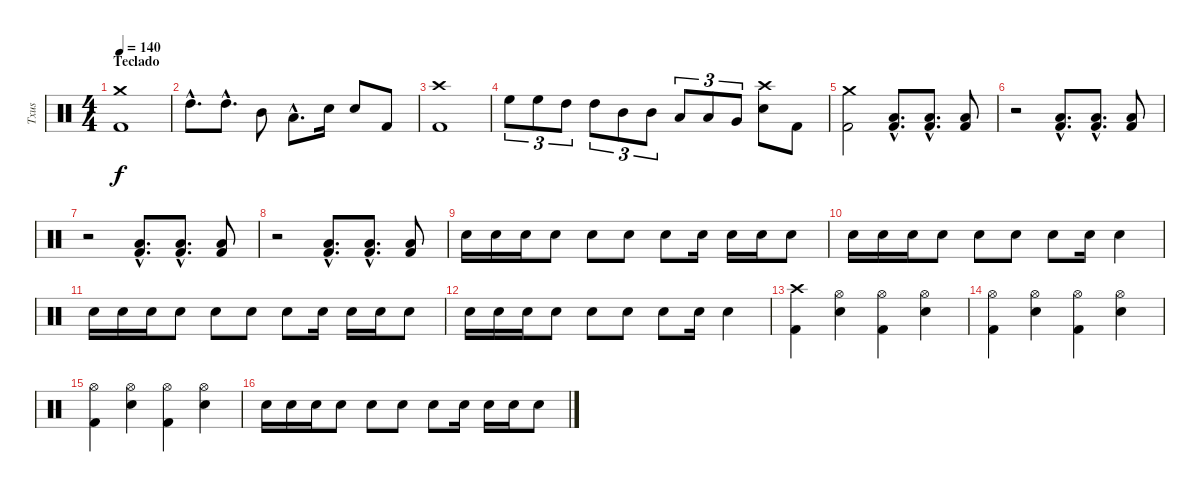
\track ("Txus" "Txus") {instrument percussion}
\staff {score}
\articulation defaults
\ts (4 4)
\section ("" "Teclado")
\tempo 140
\clef neutral
\ks c
("Kick (hit) 2" "Crash medium (hit)").1{dy f} |
"High Tom (hit)"{hac}.8{d} "High Tom (hit)"{hac}.8{d} "Mid Tom (hit)".8 "Low Tom (hit)"{hac}.8{d} "Electric Snare (hit)".16 "Electric Snare (hit)".8 "Kick (hit) 2".8 |
("Kick (hit) 2" "Crash high (hit)").1 |
"High Floor Tom (hit)".8{tu (3 2)} "High Floor Tom (hit)".8{tu (3 2)} "High Tom (hit)".8{tu (3 2)} "High Tom (hit)".8{tu (3 2)} "Mid Tom (hit)".8{tu (3 2)} "Mid Tom (hit)".8{tu (3 2)} "Low Tom (hit)".8{tu (3 2)} "Low Tom (hit)".8{tu (3 2)} "Very Low Tom (hit)".8{tu (3 2)} ("Electric Snare (hit)" "Crash high (hit)").8 "Kick (hit) 2".8 |
("Kick (hit) 2" "Crash medium (hit)").2 ("Kick (hit) 2"{hac} "Low Tom (hit)"{hac}).8{d} ("Kick (hit) 2"{hac} "Low Tom (hit)"{hac}).8{d} ("Kick (hit) 2" "Low Tom (hit)").8 |
r.2 ("Kick (hit) 2"{hac} "Low Tom (hit)"{hac}).8{d} ("Kick (hit) 2"{hac} "Low Tom (hit)"{hac}).8{d} ("Kick (hit) 2" "Low Tom (hit)").8 |
r.2 ("Kick (hit) 2"{hac} "Low Tom (hit)"{hac}).8{d} ("Kick (hit) 2"{hac} "Low Tom (hit)"{hac}).8{d} ("Kick (hit) 2" "Low Tom (hit)").8 |
r.2 ("Kick (hit) 2"{hac} "Low Tom (hit)"{hac}).8{d} ("Kick (hit) 2"{hac} "Low Tom (hit)"{hac}).8{d} ("Kick (hit) 2" "Low Tom (hit)").8 |
"Electric Snare (hit)".16 "Electric Snare (hit)".16 "Electric Snare (hit)".16 "Electric Snare (hit)".8 "Electric Snare (hit)".8 "Electric Snare (hit)".8 "Electric Snare (hit)".8 "Electric Snare (hit)".16 "Electric Snare (hit)".16 "Electric Snare (hit)".16 "Electric Snare (hit)".8 |
"Electric Snare (hit)".16 "Electric Snare (hit)".16 "Electric Snare (hit)".16 "Electric Snare (hit)".8 "Electric Snare (hit)".8 "Electric Snare (hit)".8 "Electric Snare (hit)".8 "Electric Snare (hit)".16 "Electric Snare (hit)".4 |
"Electric Snare (hit)".16 "Electric Snare (hit)".16 "Electric Snare (hit)".16 "Electric Snare (hit)".8 "Electric Snare (hit)".8 "Electric Snare (hit)".8 "Electric Snare (hit)".8 "Electric Snare (hit)".16 "Electric Snare (hit)".16 "Electric Snare (hit)".16 "Electric Snare (hit)".8 |
"Electric Snare (hit)".16 "Electric Snare (hit)".16 "Electric Snare (hit)".16 "Electric Snare (hit)".8 "Electric Snare (hit)".8 "Electric Snare (hit)".8 "Electric Snare (hit)".8 "Electric Snare (hit)".16 "Electric Snare (hit)".4 |
("Kick (hit) 2" "Crash high (hit)").4 ("Electric Snare (hit)" "Hi-Hat (open)").4 ("Kick (hit) 2" "Hi-Hat (open)").4 ("Electric Snare (hit)" "Hi-Hat (open)").4 |
("Kick (hit) 2" "Hi-Hat (open)").4 ("Electric Snare (hit)" "Hi-Hat (open)").4 ("Kick (hit) 2" "Hi-Hat (open)").4 ("Electric Snare (hit)" "Hi-Hat (open)").4 |
("Kick (hit) 2" "Hi-Hat (open)").4 ("Electric Snare (hit)" "Hi-Hat (open)").4 ("Kick (hit) 2" "Hi-Hat (open)").4 ("Electric Snare (hit)" "Hi-Hat (open)").4 |
"Electric Snare (hit)".16 "Electric Snare (hit)".16 "Electric Snare (hit)".16 "Electric Snare (hit)".8 "Electric Snare (hit)".8 "Electric Snare (hit)".8 "Electric Snare (hit)".8 "Electric Snare (hit)".16 "Electric Snare (hit)".16 "Electric Snare (hit)".16 "Electric Snare (hit)".8
